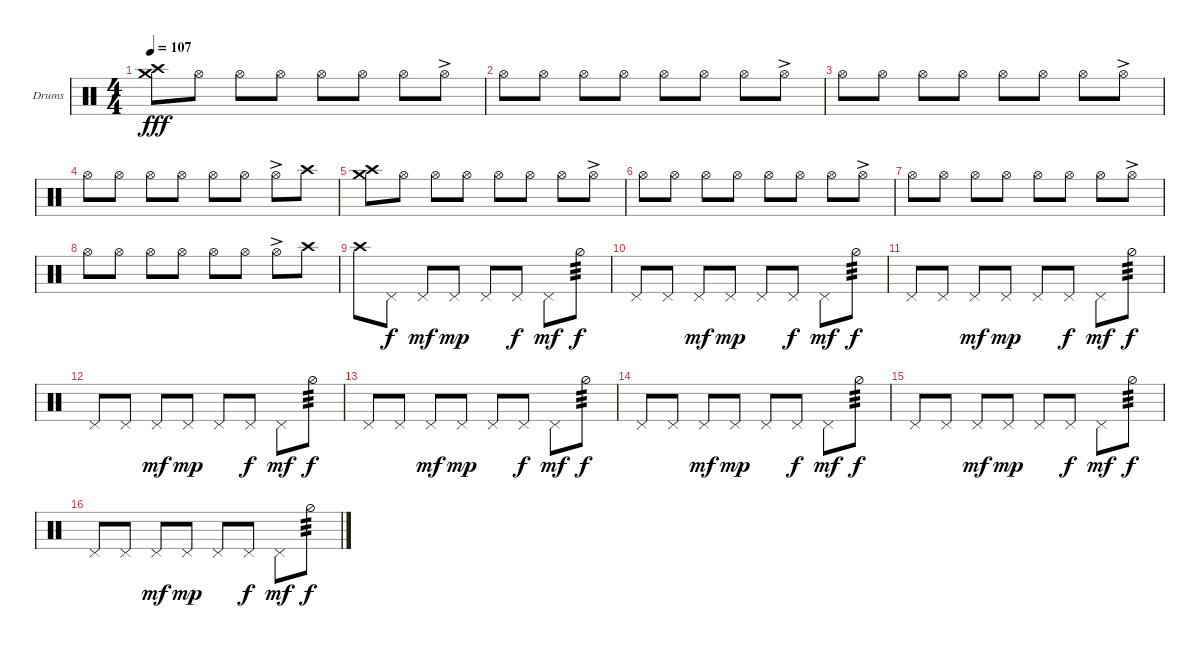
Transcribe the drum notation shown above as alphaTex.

\defaultSystemsLayout 4
\bracketExtendMode groupsimilarinstruments
\firstSystemTrackNameOrientation horizontal
\otherSystemsTrackNameOrientation horizontal
\track ("Helders" "Drums") {instrument percussion}
\staff {score}
\articulation defaults
\ts (4 4)
\tempo 107
\clef neutral
\ks c
("Crash medium (hit)" "Crash high (hit)").8{dy fff} "Hi-Hat (open)".8 "Hi-Hat (open)".8 "Hi-Hat (open)".8 "Hi-Hat (open)".8 "Hi-Hat (open)".8 "Hi-Hat (open)".8 "Hi-Hat (open)"{ac}.8 |
"Hi-Hat (open)".8 "Hi-Hat (open)".8 "Hi-Hat (open)".8 "Hi-Hat (open)".8 "Hi-Hat (open)".8 "Hi-Hat (open)".8 "Hi-Hat (open)".8 "Hi-Hat (open)"{ac}.8 |
"Hi-Hat (open)".8 "Hi-Hat (open)".8 "Hi-Hat (open)".8 "Hi-Hat (open)".8 "Hi-Hat (open)".8 "Hi-Hat (open)".8 "Hi-Hat (open)".8 "Hi-Hat (open)"{ac}.8 |
"Hi-Hat (open)".8 "Hi-Hat (open)".8 "Hi-Hat (open)".8 "Hi-Hat (open)".8 "Hi-Hat (open)".8 "Hi-Hat (open)".8 "Hi-Hat (open)"{ac}.8 "Crash high (hit)".8 |
("Crash medium (hit)" "Crash high (hit)").8 "Hi-Hat (open)".8 "Hi-Hat (open)".8 "Hi-Hat (open)".8 "Hi-Hat (open)".8 "Hi-Hat (open)".8 "Hi-Hat (open)".8 "Hi-Hat (open)"{ac}.8 |
"Hi-Hat (open)".8 "Hi-Hat (open)".8 "Hi-Hat (open)".8 "Hi-Hat (open)".8 "Hi-Hat (open)".8 "Hi-Hat (open)".8 "Hi-Hat (open)".8 "Hi-Hat (open)"{ac}.8 |
"Hi-Hat (open)".8 "Hi-Hat (open)".8 "Hi-Hat (open)".8 "Hi-Hat (open)".8 "Hi-Hat (open)".8 "Hi-Hat (open)".8 "Hi-Hat (open)".8 "Hi-Hat (open)"{ac}.8 |
"Hi-Hat (open)".8 "Hi-Hat (open)".8 "Hi-Hat (open)".8 "Hi-Hat (open)".8 "Hi-Hat (open)".8 "Hi-Hat (open)".8 "Hi-Hat (open)"{ac}.8 "Crash high (hit)".8 |
"Crash high (hit)".8 "Pedal Hi-Hat (hit)".8{dy f} "Pedal Hi-Hat (hit)".8{dy mf} "Pedal Hi-Hat (hit)".8{dy mp} "Pedal Hi-Hat (hit)".8 "Pedal Hi-Hat (hit)".8{dy f} "Pedal Hi-Hat (hit)".8{dy mf} "Hi-Hat (half)".8{tp 3 dy f} |
"Pedal Hi-Hat (hit)".8 "Pedal Hi-Hat (hit)".8 "Pedal Hi-Hat (hit)".8{dy mf} "Pedal Hi-Hat (hit)".8{dy mp} "Pedal Hi-Hat (hit)".8 "Pedal Hi-Hat (hit)".8{dy f} "Pedal Hi-Hat (hit)".8{dy mf} "Hi-Hat (half)".8{tp 3 dy f} |
"Pedal Hi-Hat (hit)".8 "Pedal Hi-Hat (hit)".8 "Pedal Hi-Hat (hit)".8{dy mf} "Pedal Hi-Hat (hit)".8{dy mp} "Pedal Hi-Hat (hit)".8 "Pedal Hi-Hat (hit)".8{dy f} "Pedal Hi-Hat (hit)".8{dy mf} "Hi-Hat (half)".8{tp 3 dy f} |
"Pedal Hi-Hat (hit)".8 "Pedal Hi-Hat (hit)".8 "Pedal Hi-Hat (hit)".8{dy mf} "Pedal Hi-Hat (hit)".8{dy mp} "Pedal Hi-Hat (hit)".8 "Pedal Hi-Hat (hit)".8{dy f} "Pedal Hi-Hat (hit)".8{dy mf} "Hi-Hat (half)".8{tp 3 dy f} |
"Pedal Hi-Hat (hit)".8 "Pedal Hi-Hat (hit)".8 "Pedal Hi-Hat (hit)".8{dy mf} "Pedal Hi-Hat (hit)".8{dy mp} "Pedal Hi-Hat (hit)".8 "Pedal Hi-Hat (hit)".8{dy f} "Pedal Hi-Hat (hit)".8{dy mf} "Hi-Hat (half)".8{tp 3 dy f} |
"Pedal Hi-Hat (hit)".8 "Pedal Hi-Hat (hit)".8 "Pedal Hi-Hat (hit)".8{dy mf} "Pedal Hi-Hat (hit)".8{dy mp} "Pedal Hi-Hat (hit)".8 "Pedal Hi-Hat (hit)".8{dy f} "Pedal Hi-Hat (hit)".8{dy mf} "Hi-Hat (half)".8{tp 3 dy f} |
"Pedal Hi-Hat (hit)".8 "Pedal Hi-Hat (hit)".8 "Pedal Hi-Hat (hit)".8{dy mf} "Pedal Hi-Hat (hit)".8{dy mp} "Pedal Hi-Hat (hit)".8 "Pedal Hi-Hat (hit)".8{dy f} "Pedal Hi-Hat (hit)".8{dy mf} "Hi-Hat (half)".8{tp 3 dy f} |
"Pedal Hi-Hat (hit)".8 "Pedal Hi-Hat (hit)".8 "Pedal Hi-Hat (hit)".8{dy mf} "Pedal Hi-Hat (hit)".8{dy mp} "Pedal Hi-Hat (hit)".8 "Pedal Hi-Hat (hit)".8{dy f} "Pedal Hi-Hat (hit)".8{dy mf} "Hi-Hat (half)".8{tp 3 dy f}
